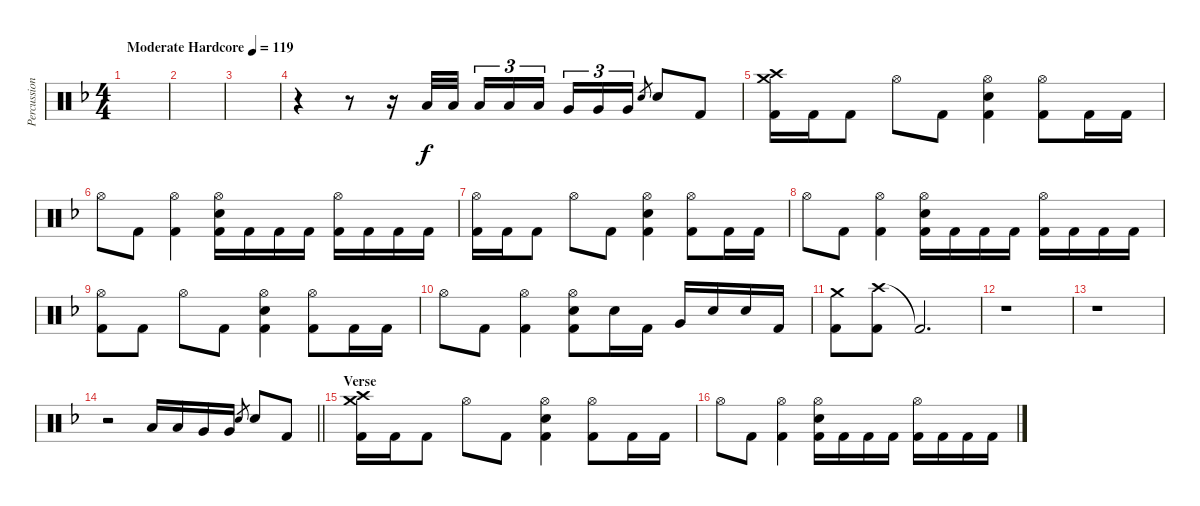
\track ("Percussion" "Percussion") {instrument percussion}
\staff {score}
\articulation defaults
\ts (4 4)
\tempo (119 "Moderate Hardcore")
\clef neutral
\ks dminor
|
|
|
r.4 r.8 r.16 "Low Tom (hit)".32 "Low Tom (hit)".32 "Low Tom (hit)".16{tu (3 2)} "Low Tom (hit)".16{tu (3 2)} "Low Tom (hit)".16{tu (3 2) beam splitsecondary} "Very Low Tom (hit)".16{tu (3 2)} "Very Low Tom (hit)".16{tu (3 2)} "Very Low Tom (hit)".16{tu (3 2)} "Electric Snare (hit)".8{gr} "Electric Snare (hit)".8 "Kick (hit) 2".8 |
("Crash medium (hit)" "Crash high (hit)" "Kick (hit) 2").16 "Kick (hit) 2".16 "Kick (hit) 2".8 "Hi-Hat (open)".8 "Kick (hit) 2".8 ("Hi-Hat (open)" "Electric Snare (hit)" "Kick (hit) 2").4 ("Hi-Hat (open)" "Kick (hit) 2").8 "Kick (hit) 2".16 "Kick (hit) 2".16 |
"Hi-Hat (open)".8 "Kick (hit) 2".8 ("Hi-Hat (open)" "Kick (hit) 2").4 ("Hi-Hat (open)" "Electric Snare (hit)" "Kick (hit) 2").16 "Kick (hit) 2".16 "Kick (hit) 2".16 "Kick (hit) 2".16 ("Hi-Hat (open)" "Kick (hit) 2").16 "Kick (hit) 2".16 "Kick (hit) 2".16 "Kick (hit) 2".16 |
("Hi-Hat (open)" "Kick (hit) 2").16 "Kick (hit) 2".16 "Kick (hit) 2".8 "Hi-Hat (open)".8 "Kick (hit) 2".8 ("Hi-Hat (open)" "Electric Snare (hit)" "Kick (hit) 2").4 ("Hi-Hat (open)" "Kick (hit) 2").8 "Kick (hit) 2".16 "Kick (hit) 2".16 |
"Hi-Hat (open)".8 "Kick (hit) 2".8 ("Hi-Hat (open)" "Kick (hit) 2").4 ("Hi-Hat (open)" "Electric Snare (hit)" "Kick (hit) 2").16 "Kick (hit) 2".16 "Kick (hit) 2".16 "Kick (hit) 2".16 ("Hi-Hat (open)" "Kick (hit) 2").16 "Kick (hit) 2".16 "Kick (hit) 2".16 "Kick (hit) 2".16 |
("Hi-Hat (open)" "Kick (hit) 2").8 "Kick (hit) 2".8 "Hi-Hat (open)".8 "Kick (hit) 2".8 ("Hi-Hat (open)" "Electric Snare (hit)" "Kick (hit) 2").4 ("Hi-Hat (open)" "Kick (hit) 2").8 "Kick (hit) 2".16 "Kick (hit) 2".16 |
"Hi-Hat (open)".8 "Kick (hit) 2".8 ("Hi-Hat (open)" "Kick (hit) 2").4 ("Hi-Hat (open)" "Electric Snare (hit)" "Kick (hit) 2").8 "Electric Snare (hit)".16 "Kick (hit) 2".16 "Very Low Tom (hit)".16 "Electric Snare (hit)".16 "Electric Snare (hit)".16 "Kick (hit) 2".16 |
("Crash medium (hit)" "Kick (hit) 2").8 ("Crash high (hit)" "Kick (hit) 2").8 "Kick (hit) 2"{t}.2{d} |
r.1 |
r.1 |
\barLineRight lightlight
r.2 "Low Tom (hit)".16 "Low Tom (hit)".16 "Very Low Tom (hit)".16 "Very Low Tom (hit)".16 "Electric Snare (hit)".8{gr} "Electric Snare (hit)".8 "Kick (hit) 2".8 |
\section ("" "Verse")
("Crash medium (hit)" "Crash high (hit)" "Kick (hit) 2").16 "Kick (hit) 2".16 "Kick (hit) 2".8 "Hi-Hat (open)".8 "Kick (hit) 2".8 ("Hi-Hat (open)" "Electric Snare (hit)" "Kick (hit) 2").4 ("Hi-Hat (open)" "Kick (hit) 2").8 "Kick (hit) 2".16 "Kick (hit) 2".16 |
"Hi-Hat (open)".8 "Kick (hit) 2".8 ("Hi-Hat (open)" "Kick (hit) 2").4 ("Hi-Hat (open)" "Electric Snare (hit)" "Kick (hit) 2").16 "Kick (hit) 2".16 "Kick (hit) 2".16 "Kick (hit) 2".16 ("Hi-Hat (open)" "Kick (hit) 2").16 "Kick (hit) 2".16 "Kick (hit) 2".16 "Kick (hit) 2".16
